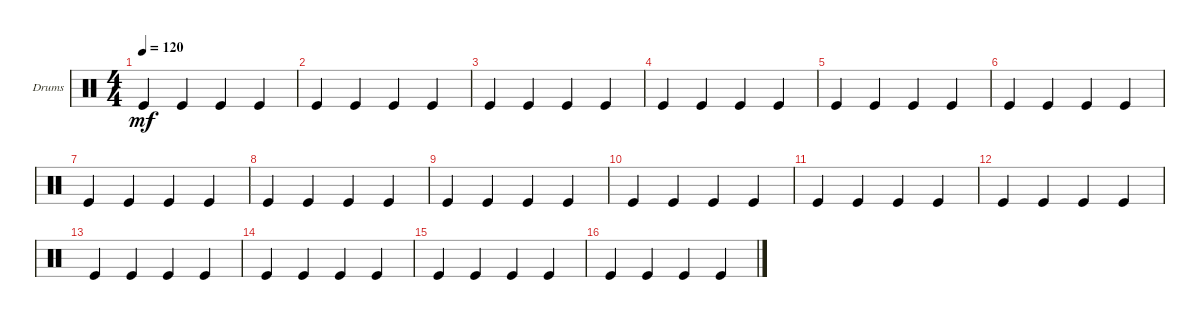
\defaultSystemsLayout 4
\bracketExtendMode groupsimilarinstruments
\firstSystemTrackNameOrientation horizontal
\otherSystemsTrackNameOrientation horizontal
\track ("Drumkit             ( Ударные )" "Drums") {instrument percussion}
\staff {score}
\articulation defaults
\ts (4 4)
\tempo 120
\clef neutral
\scale
0.333333
\ks c "Kick (hit)".4{dy mf} "Kick (hit)".4 "Kick (hit)".4 "Kick (hit)".4
|
\scale
0.333333 "Kick (hit)".4 "Kick (hit)".4 "Kick (hit)".4 "Kick (hit)".4 |
\scale
0.333333 "Kick (hit)".4 "Kick (hit)".4 "Kick (hit)".4 "Kick (hit)".4 |
\scale
0.333333 "Kick (hit)".4 "Kick (hit)".4 "Kick (hit)".4 "Kick (hit)".4 |
"Kick (hit)".4 "Kick (hit)".4 "Kick (hit)".4 "Kick (hit)".4 |
"Kick (hit)".4 "Kick (hit)".4 "Kick (hit)".4 "Kick (hit)".4 |
"Kick (hit)".4 "Kick (hit)".4 "Kick (hit)".4 "Kick (hit)".4 |
"Kick (hit)".4 "Kick (hit)".4 "Kick (hit)".4 "Kick (hit)".4 |
"Kick (hit)".4 "Kick (hit)".4 "Kick (hit)".4 "Kick (hit)".4 |
"Kick (hit)".4 "Kick (hit)".4 "Kick (hit)".4 "Kick (hit)".4 |
"Kick (hit)".4 "Kick (hit)".4 "Kick (hit)".4 "Kick (hit)".4 |
"Kick (hit)".4 "Kick (hit)".4 "Kick (hit)".4 "Kick (hit)".4 |
\scale
0.333333 "Kick (hit)".4 "Kick (hit)".4 "Kick (hit)".4 "Kick (hit)".4 |
"Kick (hit)".4 "Kick (hit)".4 "Kick (hit)".4 "Kick (hit)".4 |
"Kick (hit)".4 "Kick (hit)".4 "Kick (hit)".4 "Kick (hit)".4 |
"Kick (hit)".4 "Kick (hit)".4 "Kick (hit)".4 "Kick (hit)".4
